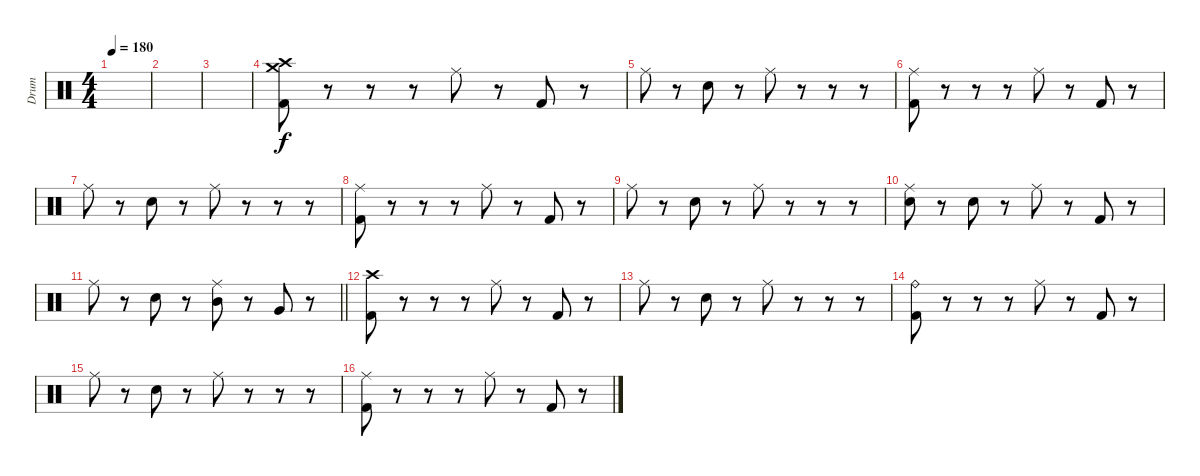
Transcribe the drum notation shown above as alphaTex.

\track ("Drum" "Drum") {instrument percussion}
\staff {score}
\articulation defaults
\ts (4 4)
\tempo 180
\clef neutral
\ks c
|
|
|
("Crash high (hit)" "Crash medium (hit)" "Kick (hit) 2").8{volume 16} r.8 r.8 r.8 "Ride (middle)".8 r.8 "Kick (hit) 2".8 r.8 |
"Ride (middle)".8 r.8 "Snare (hit) 2".8 r.8 "Ride (middle)".8 r.8 r.8 r.8 |
("Ride (middle)" "Kick (hit) 2").8 r.8 r.8 r.8 "Ride (middle)".8 r.8 "Kick (hit) 2".8 r.8 |
"Ride (middle)".8 r.8 "Snare (hit) 2".8 r.8 "Ride (middle)".8 r.8 r.8 r.8 |
("Ride (middle)" "Kick (hit) 2").8 r.8 r.8 r.8 "Ride (middle)".8 r.8 "Kick (hit) 2".8 r.8 |
"Ride (middle)".8 r.8 "Snare (hit) 2".8 r.8 "Ride (middle)".8 r.8 r.8 r.8 |
("Ride (middle)" "Snare (hit) 2").8 r.8 "Snare (hit) 2".8 r.8 "Ride (middle)".8 r.8 "Kick (hit) 2".8 r.8 |
\barLineRight lightlight "Ride (middle)".8
r.8 "Snare (hit) 2".8 r.8 ("Ride (middle)" "Mid Tom (hit)").8 r.8 "Very Low Tom (hit)".8 r.8 |
\section ("" "")
("Crash high (hit)" "Kick (hit) 2").8{volume 16} r.8 r.8 r.8 "Ride (middle)".8 r.8 "Kick (hit) 2".8 r.8 |
"Ride (middle)".8 r.8 "Snare (hit) 2".8 r.8 "Ride (middle)".8 r.8 r.8 r.8 |
("Ride (bell)" "Kick (hit) 2").8 r.8 r.8 r.8 "Ride (middle)".8 r.8 "Kick (hit) 2".8 r.8 |
"Ride (middle)".8 r.8 "Snare (hit) 2".8 r.8 "Ride (middle)".8 r.8 r.8 r.8 |
("Ride (middle)" "Kick (hit) 2").8 r.8 r.8 r.8 "Ride (middle)".8 r.8 "Kick (hit) 2".8 r.8
